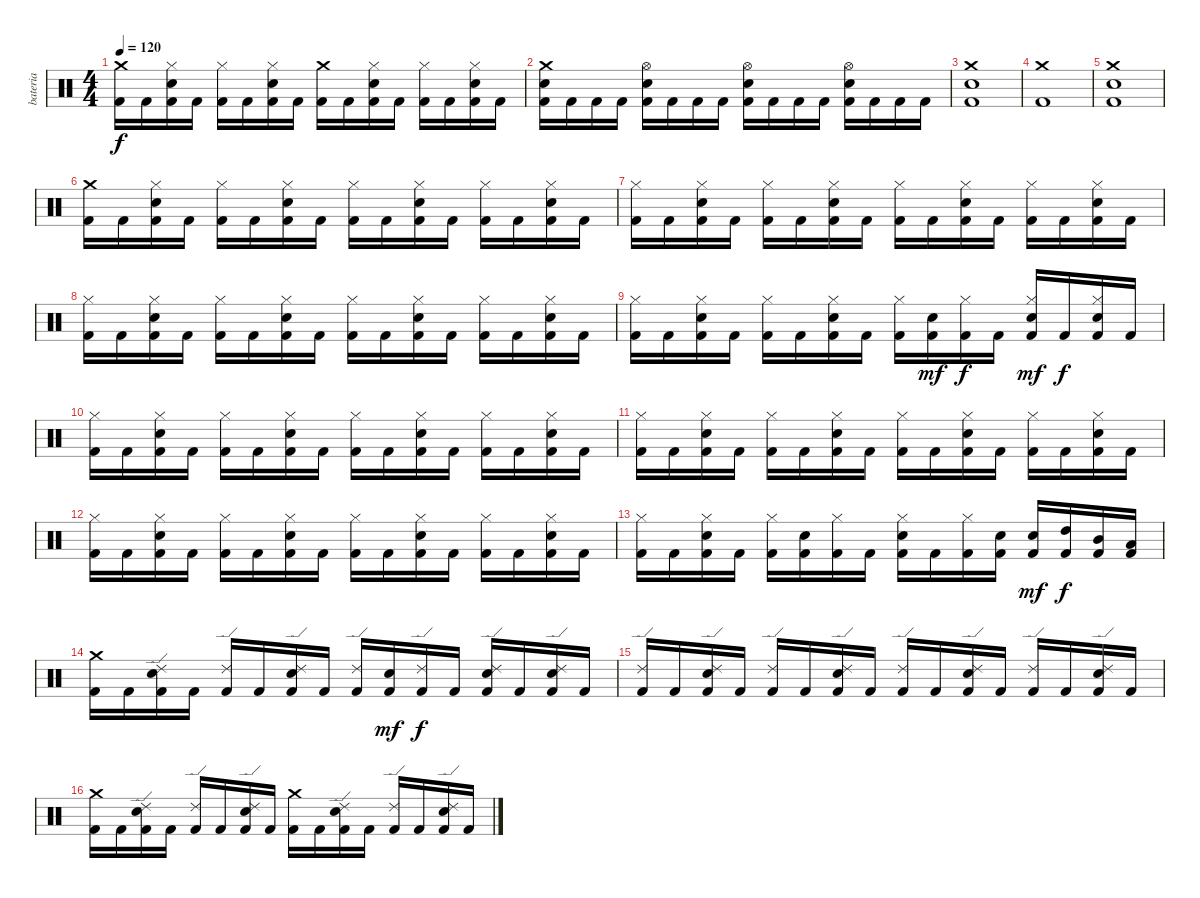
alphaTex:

\track ("bateria" "bateria") {instrument percussion}
\staff {score}
\articulation defaults
\ts (4 4)
\tempo 120
\clef neutral
\ks c
("Crash medium (hit)" "Kick (hit) 2").16{dy f} "Kick (hit) 2".16 ("Hi-Hat (closed)" "Electric Snare (hit)" "Kick (hit) 2").16 "Kick (hit) 2".16 ("Hi-Hat (closed)" "Kick (hit) 2").16 "Kick (hit) 2".16 ("Hi-Hat (closed)" "Electric Snare (hit)" "Kick (hit) 2").16 "Kick (hit) 2".16 ("Crash medium (hit)" "Kick (hit) 2").16 "Kick (hit) 2".16 ("Hi-Hat (closed)" "Electric Snare (hit)" "Kick (hit) 2").16 "Kick (hit) 2".16 ("Hi-Hat (closed)" "Kick (hit) 2").16 "Kick (hit) 2".16 ("Hi-Hat (closed)" "Electric Snare (hit)" "Kick (hit) 2").16 "Kick (hit) 2".16 |
("Crash medium (hit)" "Electric Snare (hit)" "Kick (hit) 2").16 "Kick (hit) 2".16 "Kick (hit) 2".16 "Kick (hit) 2".16 ("Hi-Hat (open)" "Electric Snare (hit)" "Kick (hit) 2").16 "Kick (hit) 2".16 "Kick (hit) 2".16 "Kick (hit) 2".16 ("Hi-Hat (open)" "Electric Snare (hit)" "Kick (hit) 2").16 "Kick (hit) 2".16 "Kick (hit) 2".16 "Kick (hit) 2".16 ("Hi-Hat (open)" "Electric Snare (hit)" "Kick (hit) 2").16 "Kick (hit) 2".16 "Kick (hit) 2".16 "Kick (hit) 2".16 |
("Crash medium (hit)" "Electric Snare (hit)" "Kick (hit) 2").1 |
("Crash medium (hit)" "Kick (hit) 2").1 |
("Crash medium (hit)" "Electric Snare (hit)" "Kick (hit) 2").1 |
("Crash medium (hit)" "Kick (hit) 2").16 "Kick (hit) 2".16 ("Hi-Hat (closed)" "Electric Snare (hit)" "Kick (hit) 2").16 "Kick (hit) 2".16 ("Hi-Hat (closed)" "Kick (hit) 2").16 "Kick (hit) 2".16 ("Hi-Hat (closed)" "Electric Snare (hit)" "Kick (hit) 2").16 "Kick (hit) 2".16 ("Hi-Hat (closed)" "Kick (hit) 2").16 "Kick (hit) 2".16 ("Hi-Hat (closed)" "Electric Snare (hit)" "Kick (hit) 2").16 "Kick (hit) 2".16 ("Hi-Hat (closed)" "Kick (hit) 2").16 "Kick (hit) 2".16 ("Hi-Hat (closed)" "Electric Snare (hit)" "Kick (hit) 2").16 "Kick (hit) 2".16 |
("Hi-Hat (closed)" "Kick (hit) 2").16 "Kick (hit) 2".16 ("Hi-Hat (closed)" "Electric Snare (hit)" "Kick (hit) 2").16 "Kick (hit) 2".16 ("Hi-Hat (closed)" "Kick (hit) 2").16 "Kick (hit) 2".16 ("Hi-Hat (closed)" "Electric Snare (hit)" "Kick (hit) 2").16 "Kick (hit) 2".16 ("Hi-Hat (closed)" "Kick (hit) 2").16 "Kick (hit) 2".16 ("Hi-Hat (closed)" "Electric Snare (hit)" "Kick (hit) 2").16 "Kick (hit) 2".16 ("Hi-Hat (closed)" "Kick (hit) 2").16 "Kick (hit) 2".16 ("Hi-Hat (closed)" "Electric Snare (hit)" "Kick (hit) 2").16 "Kick (hit) 2".16 |
("Hi-Hat (closed)" "Kick (hit) 2").16 "Kick (hit) 2".16 ("Hi-Hat (closed)" "Electric Snare (hit)" "Kick (hit) 2").16 "Kick (hit) 2".16 ("Hi-Hat (closed)" "Kick (hit) 2").16 "Kick (hit) 2".16 ("Hi-Hat (closed)" "Electric Snare (hit)" "Kick (hit) 2").16 "Kick (hit) 2".16 ("Hi-Hat (closed)" "Kick (hit) 2").16 "Kick (hit) 2".16 ("Hi-Hat (closed)" "Electric Snare (hit)" "Kick (hit) 2").16 "Kick (hit) 2".16 ("Hi-Hat (closed)" "Kick (hit) 2").16 "Kick (hit) 2".16 ("Hi-Hat (closed)" "Electric Snare (hit)" "Kick (hit) 2").16 "Kick (hit) 2".16 |
("Hi-Hat (closed)" "Kick (hit) 2").16 "Kick (hit) 2".16 ("Hi-Hat (closed)" "Electric Snare (hit)" "Kick (hit) 2").16 "Kick (hit) 2".16 ("Hi-Hat (closed)" "Kick (hit) 2").16 "Kick (hit) 2".16 ("Hi-Hat (closed)" "Electric Snare (hit)" "Kick (hit) 2").16 "Kick (hit) 2".16 ("Hi-Hat (closed)" "Kick (hit) 2").16 ("Electric Snare (hit)" "Kick (hit) 2").16{dy mf} ("Hi-Hat (closed)" "Kick (hit) 2").16{dy f} "Kick (hit) 2".16 ("Hi-Hat (closed)" "Electric Snare (hit)" "Kick (hit) 2").16{dy mf} "Kick (hit) 2".16{dy f} ("Hi-Hat (closed)" "Electric Snare (hit)" "Kick (hit) 2").16 "Kick (hit) 2".16 |
("Hi-Hat (closed)" "Kick (hit) 2").16 "Kick (hit) 2".16 ("Hi-Hat (closed)" "Electric Snare (hit)" "Kick (hit) 2").16 "Kick (hit) 2".16 ("Hi-Hat (closed)" "Kick (hit) 2").16 "Kick (hit) 2".16 ("Hi-Hat (closed)" "Electric Snare (hit)" "Kick (hit) 2").16 "Kick (hit) 2".16 ("Hi-Hat (closed)" "Kick (hit) 2").16 "Kick (hit) 2".16 ("Hi-Hat (closed)" "Electric Snare (hit)" "Kick (hit) 2").16 "Kick (hit) 2".16 ("Hi-Hat (closed)" "Kick (hit) 2").16 "Kick (hit) 2".16 ("Hi-Hat (closed)" "Electric Snare (hit)" "Kick (hit) 2").16 "Kick (hit) 2".16 |
("Hi-Hat (closed)" "Kick (hit) 2").16 "Kick (hit) 2".16 ("Hi-Hat (closed)" "Electric Snare (hit)" "Kick (hit) 2").16 "Kick (hit) 2".16 ("Hi-Hat (closed)" "Kick (hit) 2").16 "Kick (hit) 2".16 ("Hi-Hat (closed)" "Electric Snare (hit)" "Kick (hit) 2").16 "Kick (hit) 2".16 ("Hi-Hat (closed)" "Kick (hit) 2").16 "Kick (hit) 2".16 ("Hi-Hat (closed)" "Electric Snare (hit)" "Kick (hit) 2").16 "Kick (hit) 2".16 ("Hi-Hat (closed)" "Kick (hit) 2").16 "Kick (hit) 2".16 ("Hi-Hat (closed)" "Electric Snare (hit)" "Kick (hit) 2").16 "Kick (hit) 2".16 |
("Hi-Hat (closed)" "Kick (hit) 2").16 "Kick (hit) 2".16 ("Hi-Hat (closed)" "Electric Snare (hit)" "Kick (hit) 2").16 "Kick (hit) 2".16 ("Hi-Hat (closed)" "Kick (hit) 2").16 "Kick (hit) 2".16 ("Hi-Hat (closed)" "Electric Snare (hit)" "Kick (hit) 2").16 "Kick (hit) 2".16 ("Hi-Hat (closed)" "Kick (hit) 2").16 "Kick (hit) 2".16 ("Hi-Hat (closed)" "Electric Snare (hit)" "Kick (hit) 2").16 "Kick (hit) 2".16 ("Hi-Hat (closed)" "Kick (hit) 2").16 "Kick (hit) 2".16 ("Hi-Hat (closed)" "Electric Snare (hit)" "Kick (hit) 2").16 "Kick (hit) 2".16 |
("Hi-Hat (closed)" "Kick (hit) 2").16 "Kick (hit) 2".16 ("Hi-Hat (closed)" "Electric Snare (hit)" "Kick (hit) 2").16 "Kick (hit) 2".16 ("Hi-Hat (closed)" "Kick (hit) 2").16 ("Electric Snare (hit)" "Kick (hit) 2").16 ("Hi-Hat (closed)" "Kick (hit) 2").16 "Kick (hit) 2".16 ("Hi-Hat (closed)" "Electric Snare (hit)" "Kick (hit) 2").16 "Kick (hit) 2".16 ("Hi-Hat (closed)" "Kick (hit) 2").16 ("Electric Snare (hit)" "Kick (hit) 2").16 ("Electric Snare (hit)" "Kick (hit) 2").16{dy mf} ("High Tom (hit)" "Kick (hit) 2").16{dy f} ("Mid Tom (hit)" "Kick (hit) 2").16 ("Low Tom (hit)" "Kick (hit) 2").16 |
("Crash medium (hit)" "Kick (hit) 2").16 "Kick (hit) 2".16 ("Ride (edge) 2" "Electric Snare (hit)" "Kick (hit) 2").16 "Kick (hit) 2".16 ("Ride (edge) 2" "Kick (hit) 2").16 "Kick (hit) 2".16 ("Ride (edge) 2" "Electric Snare (hit)" "Kick (hit) 2").16 "Kick (hit) 2".16 ("Ride (edge) 2" "Kick (hit) 2").16 ("Electric Snare (hit)" "Kick (hit) 2").16{dy mf} ("Ride (edge) 2" "Kick (hit) 2").16{dy f} "Kick (hit) 2".16 ("Ride (edge) 2" "Electric Snare (hit)" "Kick (hit) 2").16 "Kick (hit) 2".16 ("Ride (edge) 2" "Electric Snare (hit)" "Kick (hit) 2").16 "Kick (hit) 2".16 |
("Ride (edge) 2" "Kick (hit) 2").16 "Kick (hit) 2".16 ("Ride (edge) 2" "Electric Snare (hit)" "Kick (hit) 2").16 "Kick (hit) 2".16 ("Ride (edge) 2" "Kick (hit) 2").16 "Kick (hit) 2".16 ("Ride (edge) 2" "Electric Snare (hit)" "Kick (hit) 2").16 "Kick (hit) 2".16 ("Ride (edge) 2" "Kick (hit) 2").16 "Kick (hit) 2".16 ("Ride (edge) 2" "Electric Snare (hit)" "Kick (hit) 2").16 "Kick (hit) 2".16 ("Ride (edge) 2" "Kick (hit) 2").16 "Kick (hit) 2".16 ("Ride (edge) 2" "Electric Snare (hit)" "Kick (hit) 2").16 "Kick (hit) 2".16 |
("Crash medium (hit)" "Kick (hit) 2").16 "Kick (hit) 2".16 ("Ride (edge) 2" "Electric Snare (hit)" "Kick (hit) 2").16 "Kick (hit) 2".16 ("Ride (edge) 2" "Kick (hit) 2").16 "Kick (hit) 2".16 ("Ride (edge) 2" "Electric Snare (hit)" "Kick (hit) 2").16 "Kick (hit) 2".16 ("Crash medium (hit)" "Kick (hit) 2").16 "Kick (hit) 2".16 ("Ride (edge) 2" "Electric Snare (hit)" "Kick (hit) 2").16 "Kick (hit) 2".16 ("Ride (edge) 2" "Kick (hit) 2").16 "Kick (hit) 2".16 ("Ride (edge) 2" "Electric Snare (hit)" "Kick (hit) 2").16 "Kick (hit) 2".16
